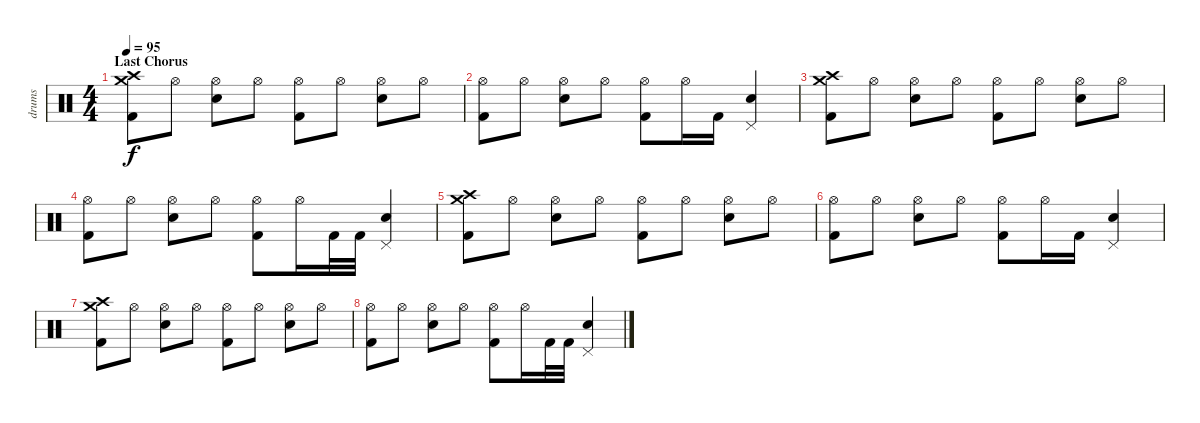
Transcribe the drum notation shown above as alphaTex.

\track ("drums" "drums") {instrument percussion}
\staff {score}
\articulation defaults
\ts (4 4)
\section ("" "Last Chorus")
\tempo 95
\clef neutral
\ks c
("Crash high (hit)" "Crash medium (hit)" "Kick (hit) 2").8{dy f} "Hi-Hat (open)".8 ("Hi-Hat (open)" "Electric Snare (hit)").8 "Hi-Hat (open)".8 ("Hi-Hat (open)" "Kick (hit) 2").8 "Hi-Hat (open)".8 ("Hi-Hat (open)" "Electric Snare (hit)").8 "Hi-Hat (open)".8 |
("Hi-Hat (open)" "Kick (hit) 2").8 "Hi-Hat (open)".8 ("Hi-Hat (open)" "Electric Snare (hit)").8 "Hi-Hat (open)".8 ("Hi-Hat (open)" "Kick (hit) 2").8 "Hi-Hat (open)".16 "Kick (hit) 2".16 ("Pedal Hi-Hat (hit)" "Electric Snare (hit)").4 |
("Crash high (hit)" "Crash medium (hit)" "Kick (hit) 2").8 "Hi-Hat (open)".8 ("Hi-Hat (open)" "Electric Snare (hit)").8 "Hi-Hat (open)".8 ("Hi-Hat (open)" "Kick (hit) 2").8 "Hi-Hat (open)".8 ("Hi-Hat (open)" "Electric Snare (hit)").8 "Hi-Hat (open)".8 |
("Hi-Hat (open)" "Kick (hit) 2").8 "Hi-Hat (open)".8 ("Hi-Hat (open)" "Electric Snare (hit)").8 "Hi-Hat (open)".8 ("Hi-Hat (open)" "Kick (hit) 2").8 "Hi-Hat (open)".16 "Kick (hit) 2".32 "Kick (hit) 2".32 ("Pedal Hi-Hat (hit)" "Electric Snare (hit)").4 |
("Crash high (hit)" "Crash medium (hit)" "Kick (hit) 2").8 "Hi-Hat (open)".8 ("Hi-Hat (open)" "Electric Snare (hit)").8 "Hi-Hat (open)".8 ("Hi-Hat (open)" "Kick (hit) 2").8 "Hi-Hat (open)".8 ("Hi-Hat (open)" "Electric Snare (hit)").8 "Hi-Hat (open)".8 |
("Hi-Hat (open)" "Kick (hit) 2").8 "Hi-Hat (open)".8 ("Hi-Hat (open)" "Electric Snare (hit)").8 "Hi-Hat (open)".8 ("Hi-Hat (open)" "Kick (hit) 2").8 "Hi-Hat (open)".16 "Kick (hit) 2".16 ("Pedal Hi-Hat (hit)" "Electric Snare (hit)").4 |
("Crash high (hit)" "Crash medium (hit)" "Kick (hit) 2").8 "Hi-Hat (open)".8 ("Hi-Hat (open)" "Electric Snare (hit)").8 "Hi-Hat (open)".8 ("Hi-Hat (open)" "Kick (hit) 2").8 "Hi-Hat (open)".8 ("Hi-Hat (open)" "Electric Snare (hit)").8 "Hi-Hat (open)".8 |
("Hi-Hat (open)" "Kick (hit) 2").8 "Hi-Hat (open)".8 ("Hi-Hat (open)" "Electric Snare (hit)").8 "Hi-Hat (open)".8 ("Hi-Hat (open)" "Kick (hit) 2").8 "Hi-Hat (open)".16 "Kick (hit) 2".32 "Kick (hit) 2".32 ("Pedal Hi-Hat (hit)" "Electric Snare (hit)").4
